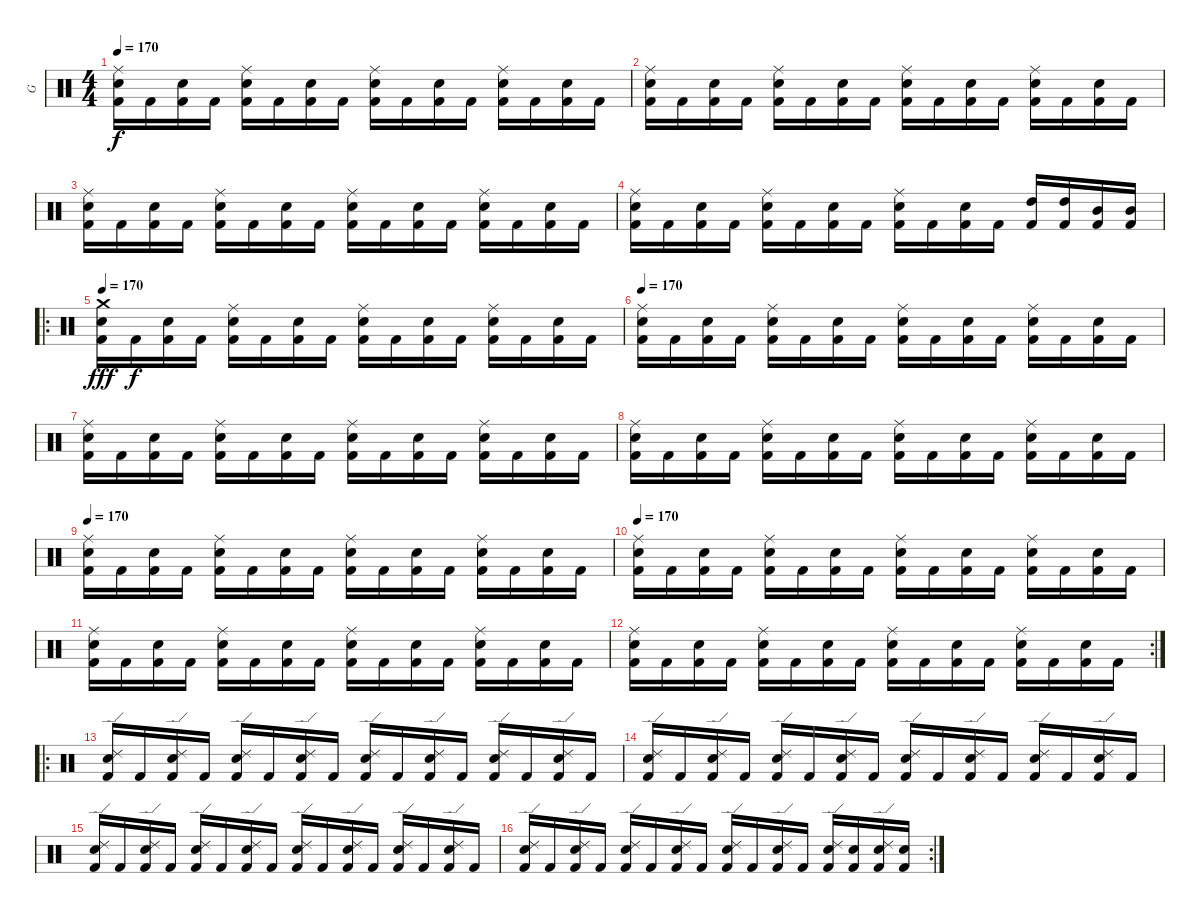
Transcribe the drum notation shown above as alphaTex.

\track ("G" "G") {instrument percussion}
\staff {score}
\articulation defaults
\ts (4 4)
\tempo 170
\clef neutral
\ks c
("Ride (middle)" "Electric Snare (hit)" "Kick (hit) 2").16{dy f} "Kick (hit) 2".16 ("Electric Snare (hit)" "Kick (hit) 2").16 "Kick (hit) 2".16 ("Ride (middle)" "Electric Snare (hit)" "Kick (hit) 2").16 "Kick (hit) 2".16 ("Electric Snare (hit)" "Kick (hit) 2").16 "Kick (hit) 2".16 ("Ride (middle)" "Electric Snare (hit)" "Kick (hit) 2").16 "Kick (hit) 2".16 ("Electric Snare (hit)" "Kick (hit) 2").16 "Kick (hit) 2".16 ("Ride (middle)" "Electric Snare (hit)" "Kick (hit) 2").16 "Kick (hit) 2".16 ("Electric Snare (hit)" "Kick (hit) 2").16 "Kick (hit) 2".16 |
("Ride (middle)" "Electric Snare (hit)" "Kick (hit) 2").16 "Kick (hit) 2".16 ("Electric Snare (hit)" "Kick (hit) 2").16 "Kick (hit) 2".16 ("Ride (middle)" "Electric Snare (hit)" "Kick (hit) 2").16 "Kick (hit) 2".16 ("Electric Snare (hit)" "Kick (hit) 2").16 "Kick (hit) 2".16 ("Ride (middle)" "Electric Snare (hit)" "Kick (hit) 2").16 "Kick (hit) 2".16 ("Electric Snare (hit)" "Kick (hit) 2").16 "Kick (hit) 2".16 ("Ride (middle)" "Electric Snare (hit)" "Kick (hit) 2").16 "Kick (hit) 2".16 ("Electric Snare (hit)" "Kick (hit) 2").16 "Kick (hit) 2".16 |
("Ride (middle)" "Electric Snare (hit)" "Kick (hit) 2").16 "Kick (hit) 2".16 ("Electric Snare (hit)" "Kick (hit) 2").16 "Kick (hit) 2".16 ("Ride (middle)" "Electric Snare (hit)" "Kick (hit) 2").16 "Kick (hit) 2".16 ("Electric Snare (hit)" "Kick (hit) 2").16 "Kick (hit) 2".16 ("Ride (middle)" "Electric Snare (hit)" "Kick (hit) 2").16 "Kick (hit) 2".16 ("Electric Snare (hit)" "Kick (hit) 2").16 "Kick (hit) 2".16 ("Ride (middle)" "Electric Snare (hit)" "Kick (hit) 2").16 "Kick (hit) 2".16 ("Electric Snare (hit)" "Kick (hit) 2").16 "Kick (hit) 2".16 |
("Ride (middle)" "Electric Snare (hit)" "Kick (hit) 2").16 "Kick (hit) 2".16 ("Electric Snare (hit)" "Kick (hit) 2").16 "Kick (hit) 2".16 ("Ride (middle)" "Electric Snare (hit)" "Kick (hit) 2").16 "Kick (hit) 2".16 ("Electric Snare (hit)" "Kick (hit) 2").16 "Kick (hit) 2".16 ("Ride (middle)" "Electric Snare (hit)" "Kick (hit) 2").16 "Kick (hit) 2".16 ("Electric Snare (hit)" "Kick (hit) 2").16 "Kick (hit) 2".16 ("High Tom (hit)" "Kick (hit) 2").16 ("High Tom (hit)" "Kick (hit) 2").16 ("Mid Tom (hit)" "Kick (hit) 2").16 ("Mid Tom (hit)" "Kick (hit) 2").16 |
\ro
\tempo 170
("Crash medium (hit)" "Electric Snare (hit)" "Kick (hit) 2").16{dy fff} "Kick (hit) 2".16{dy f} ("Electric Snare (hit)" "Kick (hit) 2").16 "Kick (hit) 2".16 ("Ride (middle)" "Electric Snare (hit)" "Kick (hit) 2").16 "Kick (hit) 2".16 ("Electric Snare (hit)" "Kick (hit) 2").16 "Kick (hit) 2".16 ("Ride (middle)" "Electric Snare (hit)" "Kick (hit) 2").16 "Kick (hit) 2".16 ("Electric Snare (hit)" "Kick (hit) 2").16 "Kick (hit) 2".16 ("Ride (middle)" "Electric Snare (hit)" "Kick (hit) 2").16 "Kick (hit) 2".16 ("Electric Snare (hit)" "Kick (hit) 2").16 "Kick (hit) 2".16 |
\tempo 170
("Ride (middle)" "Electric Snare (hit)" "Kick (hit) 2").16 "Kick (hit) 2".16 ("Electric Snare (hit)" "Kick (hit) 2").16 "Kick (hit) 2".16 ("Ride (middle)" "Electric Snare (hit)" "Kick (hit) 2").16 "Kick (hit) 2".16 ("Electric Snare (hit)" "Kick (hit) 2").16 "Kick (hit) 2".16 ("Ride (middle)" "Electric Snare (hit)" "Kick (hit) 2").16 "Kick (hit) 2".16 ("Electric Snare (hit)" "Kick (hit) 2").16 "Kick (hit) 2".16 ("Ride (middle)" "Electric Snare (hit)" "Kick (hit) 2").16 "Kick (hit) 2".16 ("Electric Snare (hit)" "Kick (hit) 2").16 "Kick (hit) 2".16 |
("Ride (middle)" "Electric Snare (hit)" "Kick (hit) 2").16 "Kick (hit) 2".16 ("Electric Snare (hit)" "Kick (hit) 2").16 "Kick (hit) 2".16 ("Ride (middle)" "Electric Snare (hit)" "Kick (hit) 2").16 "Kick (hit) 2".16 ("Electric Snare (hit)" "Kick (hit) 2").16 "Kick (hit) 2".16 ("Ride (middle)" "Electric Snare (hit)" "Kick (hit) 2").16 "Kick (hit) 2".16 ("Electric Snare (hit)" "Kick (hit) 2").16 "Kick (hit) 2".16 ("Ride (middle)" "Electric Snare (hit)" "Kick (hit) 2").16 "Kick (hit) 2".16 ("Electric Snare (hit)" "Kick (hit) 2").16 "Kick (hit) 2".16 |
("Ride (middle)" "Electric Snare (hit)" "Kick (hit) 2").16 "Kick (hit) 2".16 ("Electric Snare (hit)" "Kick (hit) 2").16 "Kick (hit) 2".16 ("Ride (middle)" "Electric Snare (hit)" "Kick (hit) 2").16 "Kick (hit) 2".16 ("Electric Snare (hit)" "Kick (hit) 2").16 "Kick (hit) 2".16 ("Ride (middle)" "Electric Snare (hit)" "Kick (hit) 2").16 "Kick (hit) 2".16 ("Electric Snare (hit)" "Kick (hit) 2").16 "Kick (hit) 2".16 ("Ride (middle)" "Electric Snare (hit)" "Kick (hit) 2").16 "Kick (hit) 2".16 ("Electric Snare (hit)" "Kick (hit) 2").16 "Kick (hit) 2".16 |
\tempo 170
("Ride (middle)" "Electric Snare (hit)" "Kick (hit) 2").16 "Kick (hit) 2".16 ("Electric Snare (hit)" "Kick (hit) 2").16 "Kick (hit) 2".16 ("Ride (middle)" "Electric Snare (hit)" "Kick (hit) 2").16 "Kick (hit) 2".16 ("Electric Snare (hit)" "Kick (hit) 2").16 "Kick (hit) 2".16 ("Ride (middle)" "Electric Snare (hit)" "Kick (hit) 2").16 "Kick (hit) 2".16 ("Electric Snare (hit)" "Kick (hit) 2").16 "Kick (hit) 2".16 ("Ride (middle)" "Electric Snare (hit)" "Kick (hit) 2").16 "Kick (hit) 2".16 ("Electric Snare (hit)" "Kick (hit) 2").16 "Kick (hit) 2".16 |
\tempo 170
("Ride (middle)" "Electric Snare (hit)" "Kick (hit) 2").16 "Kick (hit) 2".16 ("Electric Snare (hit)" "Kick (hit) 2").16 "Kick (hit) 2".16 ("Ride (middle)" "Electric Snare (hit)" "Kick (hit) 2").16 "Kick (hit) 2".16 ("Electric Snare (hit)" "Kick (hit) 2").16 "Kick (hit) 2".16 ("Ride (middle)" "Electric Snare (hit)" "Kick (hit) 2").16 "Kick (hit) 2".16 ("Electric Snare (hit)" "Kick (hit) 2").16 "Kick (hit) 2".16 ("Ride (middle)" "Electric Snare (hit)" "Kick (hit) 2").16 "Kick (hit) 2".16 ("Electric Snare (hit)" "Kick (hit) 2").16 "Kick (hit) 2".16 |
("Ride (middle)" "Electric Snare (hit)" "Kick (hit) 2").16 "Kick (hit) 2".16 ("Electric Snare (hit)" "Kick (hit) 2").16 "Kick (hit) 2".16 ("Ride (middle)" "Electric Snare (hit)" "Kick (hit) 2").16 "Kick (hit) 2".16 ("Electric Snare (hit)" "Kick (hit) 2").16 "Kick (hit) 2".16 ("Ride (middle)" "Electric Snare (hit)" "Kick (hit) 2").16 "Kick (hit) 2".16 ("Electric Snare (hit)" "Kick (hit) 2").16 "Kick (hit) 2".16 ("Ride (middle)" "Electric Snare (hit)" "Kick (hit) 2").16 "Kick (hit) 2".16 ("Electric Snare (hit)" "Kick (hit) 2").16 "Kick (hit) 2".16 |
\rc 2
("Ride (middle)" "Electric Snare (hit)" "Kick (hit) 2").16 "Kick (hit) 2".16 ("Electric Snare (hit)" "Kick (hit) 2").16 "Kick (hit) 2".16 ("Ride (middle)" "Electric Snare (hit)" "Kick (hit) 2").16 "Kick (hit) 2".16 ("Electric Snare (hit)" "Kick (hit) 2").16 "Kick (hit) 2".16 ("Ride (middle)" "Electric Snare (hit)" "Kick (hit) 2").16 "Kick (hit) 2".16 ("Electric Snare (hit)" "Kick (hit) 2").16 "Kick (hit) 2".16 ("Ride (middle)" "Electric Snare (hit)" "Kick (hit) 2").16 "Kick (hit) 2".16 ("Electric Snare (hit)" "Kick (hit) 2").16 "Kick (hit) 2".16 |
\ro
("Ride (edge) 2" "Electric Snare (hit)" "Kick (hit) 2").16 "Kick (hit) 2".16 ("Ride (edge) 2" "Electric Snare (hit)" "Kick (hit) 2").16 "Kick (hit) 2".16 ("Ride (edge) 2" "Electric Snare (hit)" "Kick (hit) 2").16 "Kick (hit) 2".16 ("Ride (edge) 2" "Electric Snare (hit)" "Kick (hit) 2").16 "Kick (hit) 2".16 ("Ride (edge) 2" "Electric Snare (hit)" "Kick (hit) 2").16 "Kick (hit) 2".16 ("Ride (edge) 2" "Electric Snare (hit)" "Kick (hit) 2").16 "Kick (hit) 2".16 ("Ride (edge) 2" "Electric Snare (hit)" "Kick (hit) 2").16 "Kick (hit) 2".16 ("Ride (edge) 2" "Electric Snare (hit)" "Kick (hit) 2").16 "Kick (hit) 2".16 |
("Ride (edge) 2" "Electric Snare (hit)" "Kick (hit) 2").16 "Kick (hit) 2".16 ("Ride (edge) 2" "Electric Snare (hit)" "Kick (hit) 2").16 "Kick (hit) 2".16 ("Ride (edge) 2" "Electric Snare (hit)" "Kick (hit) 2").16 "Kick (hit) 2".16 ("Ride (edge) 2" "Electric Snare (hit)" "Kick (hit) 2").16 "Kick (hit) 2".16 ("Ride (edge) 2" "Electric Snare (hit)" "Kick (hit) 2").16 "Kick (hit) 2".16 ("Ride (edge) 2" "Electric Snare (hit)" "Kick (hit) 2").16 "Kick (hit) 2".16 ("Ride (edge) 2" "Electric Snare (hit)" "Kick (hit) 2").16 "Kick (hit) 2".16 ("Ride (edge) 2" "Electric Snare (hit)" "Kick (hit) 2").16 "Kick (hit) 2".16 |
("Ride (edge) 2" "Electric Snare (hit)" "Kick (hit) 2").16 "Kick (hit) 2".16 ("Ride (edge) 2" "Electric Snare (hit)" "Kick (hit) 2").16 "Kick (hit) 2".16 ("Ride (edge) 2" "Electric Snare (hit)" "Kick (hit) 2").16 "Kick (hit) 2".16 ("Ride (edge) 2" "Electric Snare (hit)" "Kick (hit) 2").16 "Kick (hit) 2".16 ("Ride (edge) 2" "Electric Snare (hit)" "Kick (hit) 2").16 "Kick (hit) 2".16 ("Ride (edge) 2" "Electric Snare (hit)" "Kick (hit) 2").16 "Kick (hit) 2".16 ("Ride (edge) 2" "Electric Snare (hit)" "Kick (hit) 2").16 "Kick (hit) 2".16 ("Ride (edge) 2" "Electric Snare (hit)" "Kick (hit) 2").16 "Kick (hit) 2".16 |
\rc 2
("Ride (edge) 2" "Electric Snare (hit)" "Kick (hit) 2").16 "Kick (hit) 2".16 ("Ride (edge) 2" "Electric Snare (hit)" "Kick (hit) 2").16 "Kick (hit) 2".16 ("Ride (edge) 2" "Electric Snare (hit)" "Kick (hit) 2").16 "Kick (hit) 2".16 ("Ride (edge) 2" "Electric Snare (hit)" "Kick (hit) 2").16 "Kick (hit) 2".16 ("Ride (edge) 2" "Electric Snare (hit)" "Kick (hit) 2").16 "Kick (hit) 2".16 ("Ride (edge) 2" "Electric Snare (hit)" "Kick (hit) 2").16 "Kick (hit) 2".16 ("Ride (edge) 2" "Electric Snare (hit)" "Kick (hit) 2").16 ("Electric Snare (hit)" "Kick (hit) 2").16 ("Ride (edge) 2" "Electric Snare (hit)" "Kick (hit) 2").16 ("Electric Snare (hit)" "Kick (hit) 2").16
